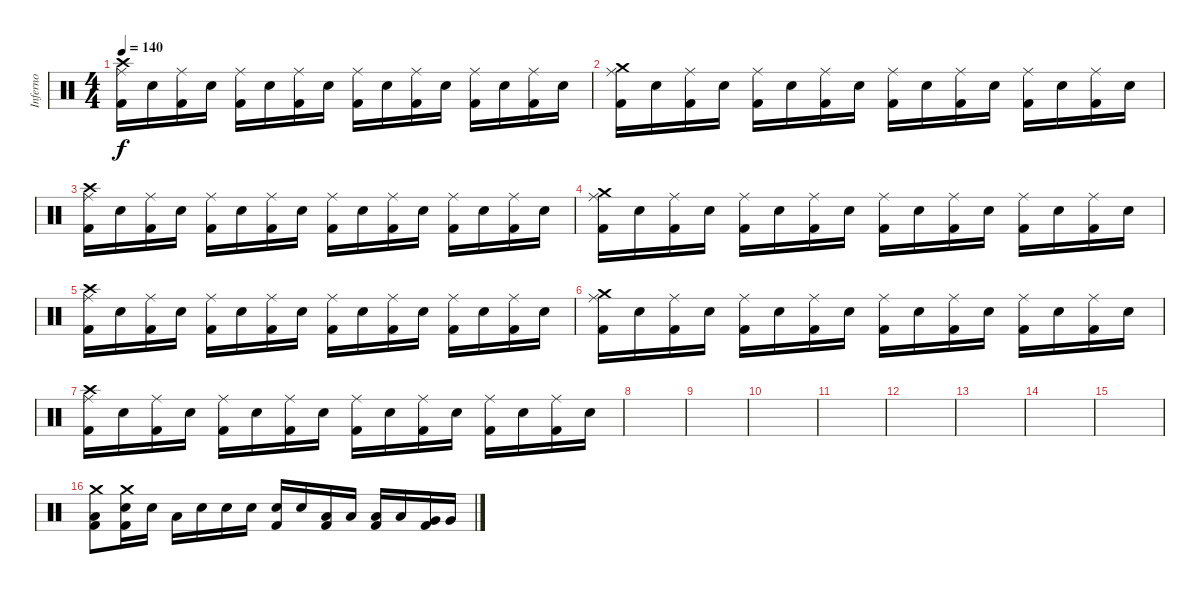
\track ("Inferno" "Inferno") {instrument percussion}
\staff {score}
\articulation defaults
\ts (4 4)
\tempo 140
\clef neutral
\ks c
("Crash high (hit)" "Ride (middle)" "Kick (hit) 2").16{dy f} "Electric Snare (hit)".16 ("Ride (middle)" "Kick (hit) 2").16 "Electric Snare (hit)".16 ("Ride (middle)" "Kick (hit) 2").16 "Electric Snare (hit)".16 ("Ride (middle)" "Kick (hit) 2").16 "Electric Snare (hit)".16 ("Ride (middle)" "Kick (hit) 2").16 "Electric Snare (hit)".16 ("Ride (middle)" "Kick (hit) 2").16 "Electric Snare (hit)".16 ("Ride (middle)" "Kick (hit) 2").16 "Electric Snare (hit)".16 ("Ride (middle)" "Kick (hit) 2").16 "Electric Snare (hit)".16 |
("Crash medium (hit)" "Ride (middle)" "Kick (hit) 2").16 "Electric Snare (hit)".16 ("Ride (middle)" "Kick (hit) 2").16 "Electric Snare (hit)".16 ("Ride (middle)" "Kick (hit) 2").16 "Electric Snare (hit)".16 ("Ride (middle)" "Kick (hit) 2").16 "Electric Snare (hit)".16 ("Ride (middle)" "Kick (hit) 2").16 "Electric Snare (hit)".16 ("Ride (middle)" "Kick (hit) 2").16 "Electric Snare (hit)".16 ("Ride (middle)" "Kick (hit) 2").16 "Electric Snare (hit)".16 ("Ride (middle)" "Kick (hit) 2").16 "Electric Snare (hit)".16 |
("Crash high (hit)" "Ride (middle)" "Kick (hit) 2").16 "Electric Snare (hit)".16 ("Ride (middle)" "Kick (hit) 2").16 "Electric Snare (hit)".16 ("Ride (middle)" "Kick (hit) 2").16 "Electric Snare (hit)".16 ("Ride (middle)" "Kick (hit) 2").16 "Electric Snare (hit)".16 ("Ride (middle)" "Kick (hit) 2").16 "Electric Snare (hit)".16 ("Ride (middle)" "Kick (hit) 2").16 "Electric Snare (hit)".16 ("Ride (middle)" "Kick (hit) 2").16 "Electric Snare (hit)".16 ("Ride (middle)" "Kick (hit) 2").16 "Electric Snare (hit)".16 |
("Crash medium (hit)" "Ride (middle)" "Kick (hit) 2").16 "Electric Snare (hit)".16 ("Ride (middle)" "Kick (hit) 2").16 "Electric Snare (hit)".16 ("Ride (middle)" "Kick (hit) 2").16 "Electric Snare (hit)".16 ("Ride (middle)" "Kick (hit) 2").16 "Electric Snare (hit)".16 ("Ride (middle)" "Kick (hit) 2").16 "Electric Snare (hit)".16 ("Ride (middle)" "Kick (hit) 2").16 "Electric Snare (hit)".16 ("Ride (middle)" "Kick (hit) 2").16 "Electric Snare (hit)".16 ("Ride (middle)" "Kick (hit) 2").16 "Electric Snare (hit)".16 |
("Crash high (hit)" "Ride (middle)" "Kick (hit) 2").16 "Electric Snare (hit)".16 ("Ride (middle)" "Kick (hit) 2").16 "Electric Snare (hit)".16 ("Ride (middle)" "Kick (hit) 2").16 "Electric Snare (hit)".16 ("Ride (middle)" "Kick (hit) 2").16 "Electric Snare (hit)".16 ("Ride (middle)" "Kick (hit) 2").16 "Electric Snare (hit)".16 ("Ride (middle)" "Kick (hit) 2").16 "Electric Snare (hit)".16 ("Ride (middle)" "Kick (hit) 2").16 "Electric Snare (hit)".16 ("Ride (middle)" "Kick (hit) 2").16 "Electric Snare (hit)".16 |
("Crash medium (hit)" "Ride (middle)" "Kick (hit) 2").16 "Electric Snare (hit)".16 ("Ride (middle)" "Kick (hit) 2").16 "Electric Snare (hit)".16 ("Ride (middle)" "Kick (hit) 2").16 "Electric Snare (hit)".16 ("Ride (middle)" "Kick (hit) 2").16 "Electric Snare (hit)".16 ("Ride (middle)" "Kick (hit) 2").16 "Electric Snare (hit)".16 ("Ride (middle)" "Kick (hit) 2").16 "Electric Snare (hit)".16 ("Ride (middle)" "Kick (hit) 2").16 "Electric Snare (hit)".16 ("Ride (middle)" "Kick (hit) 2").16 "Electric Snare (hit)".16 |
("Crash high (hit)" "Ride (middle)" "Kick (hit) 2").16 "Electric Snare (hit)".16 ("Ride (middle)" "Kick (hit) 2").16 "Electric Snare (hit)".16 ("Ride (middle)" "Kick (hit) 2").16 "Electric Snare (hit)".16 ("Ride (middle)" "Kick (hit) 2").16 "Electric Snare (hit)".16 ("Ride (middle)" "Kick (hit) 2").16 "Electric Snare (hit)".16 ("Ride (middle)" "Kick (hit) 2").16 "Electric Snare (hit)".16 ("Ride (middle)" "Kick (hit) 2").16 "Electric Snare (hit)".16 ("Ride (middle)" "Kick (hit) 2").16 "Electric Snare (hit)".16 |
|
|
|
|
|
|
|
|
("Crash medium (hit)" "Low Floor Tom (hit)" "Kick (hit) 2").8 ("Crash medium (hit)" "Electric Snare (hit)" "Kick (hit) 2").16 "Electric Snare (hit)".16 "Low Floor Tom (hit)".16 "Electric Snare (hit)".16 "Electric Snare (hit)".16 "Electric Snare (hit)".16 ("Electric Snare (hit)" "Kick (hit) 2").16 "Electric Snare (hit)".16 ("Low Tom (hit)" "Kick (hit) 2").16 "Low Tom (hit)".16 ("Low Tom (hit)" "Kick (hit) 2").16 "Low Tom (hit)".16 ("Very Low Tom (hit)" "Kick (hit) 2").16 "Very Low Tom (hit)".16
